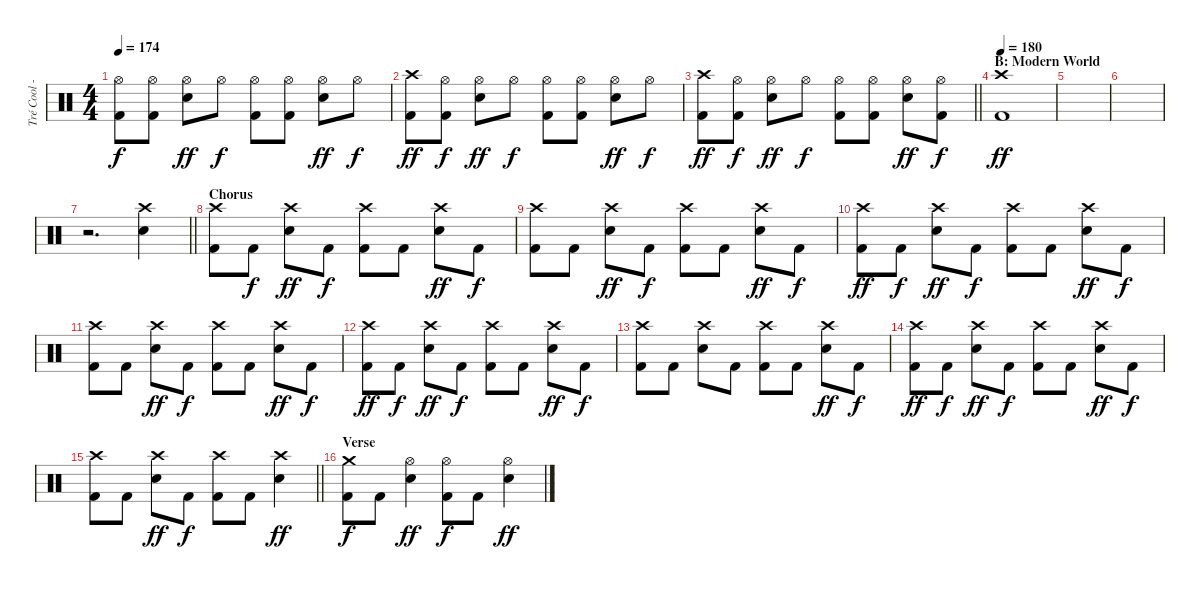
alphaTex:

\track ("Tré Cool - Drums" "Tré Cool -") {instrument percussion}
\staff {score}
\articulation defaults
\ts (4 4)
\tempo 174
\clef neutral
\ks c
("Hi-Hat (open)" "Kick (hit) 2").8{dy f} ("Hi-Hat (open)" "Kick (hit) 2").8 ("Hi-Hat (open)" "Electric Snare (hit)").8{dy ff} "Hi-Hat (open)".8{dy f} ("Hi-Hat (open)" "Kick (hit) 2").8 ("Hi-Hat (open)" "Kick (hit) 2").8 ("Hi-Hat (open)" "Electric Snare (hit)").8{dy ff} "Hi-Hat (open)".8{dy f} |
("Crash high (hit)" "Kick (hit) 2").8{dy ff} ("Hi-Hat (open)" "Kick (hit) 2").8{dy f} ("Hi-Hat (open)" "Electric Snare (hit)").8{dy ff} "Hi-Hat (open)".8{dy f} ("Hi-Hat (open)" "Kick (hit) 2").8 ("Hi-Hat (open)" "Kick (hit) 2").8 ("Hi-Hat (open)" "Electric Snare (hit)").8{dy ff} "Hi-Hat (open)".8{dy f} |
\barLineRight lightlight
("Crash high (hit)" "Kick (hit) 2").8{dy ff} ("Hi-Hat (open)" "Kick (hit) 2").8{dy f} ("Hi-Hat (open)" "Electric Snare (hit)").8{dy ff} "Hi-Hat (open)".8{dy f} ("Hi-Hat (open)" "Kick (hit) 2").8 ("Hi-Hat (open)" "Kick (hit) 2").8 ("Hi-Hat (open)" "Electric Snare (hit)").8{dy ff} ("Hi-Hat (open)" "Kick (hit) 2").8{dy f} |
\section ("" "B: Modern World")
\tempo 180
("Crash high (hit)" "Kick (hit) 2").1{dy ff} |
|
|
\barLineRight lightlight
r.2{d} ("Crash high (hit)" "Electric Snare (hit)").4 |
\section ("" "Chorus")
("Crash high (hit)" "Kick (hit) 2").8 "Kick (hit) 2".8{dy f} ("Crash high (hit)" "Electric Snare (hit)").8{dy ff} "Kick (hit) 2".8{dy f} ("Crash high (hit)" "Kick (hit) 2").8 "Kick (hit) 2".8 ("Crash high (hit)" "Electric Snare (hit)").8{dy ff} "Kick (hit) 2".8{dy f} |
("Crash high (hit)" "Kick (hit) 2").8 "Kick (hit) 2".8 ("Crash high (hit)" "Electric Snare (hit)").8{dy ff} "Kick (hit) 2".8{dy f} ("Crash high (hit)" "Kick (hit) 2").8 "Kick (hit) 2".8 ("Crash high (hit)" "Electric Snare (hit)").8{dy ff} "Kick (hit) 2".8{dy f} |
("Crash high (hit)" "Kick (hit) 2").8{dy ff} "Kick (hit) 2".8{dy f} ("Crash high (hit)" "Electric Snare (hit)").8{dy ff} "Kick (hit) 2".8{dy f} ("Crash high (hit)" "Kick (hit) 2").8 "Kick (hit) 2".8 ("Crash high (hit)" "Electric Snare (hit)").8{dy ff} "Kick (hit) 2".8{dy f} |
("Crash high (hit)" "Kick (hit) 2").8 "Kick (hit) 2".8 ("Crash high (hit)" "Electric Snare (hit)").8{dy ff} "Kick (hit) 2".8{dy f} ("Crash high (hit)" "Kick (hit) 2").8 "Kick (hit) 2".8 ("Crash high (hit)" "Electric Snare (hit)").8{dy ff} "Kick (hit) 2".8{dy f} |
("Crash high (hit)" "Kick (hit) 2").8{dy ff} "Kick (hit) 2".8{dy f} ("Crash high (hit)" "Electric Snare (hit)").8{dy ff} "Kick (hit) 2".8{dy f} ("Crash high (hit)" "Kick (hit) 2").8 "Kick (hit) 2".8 ("Crash high (hit)" "Electric Snare (hit)").8{dy ff} "Kick (hit) 2".8{dy f} |
("Crash high (hit)" "Kick (hit) 2").8 "Kick (hit) 2".8 ("Crash high (hit)" "Electric Snare (hit)").8 "Kick (hit) 2".8 ("Crash high (hit)" "Kick (hit) 2").8 "Kick (hit) 2".8 ("Crash high (hit)" "Electric Snare (hit)").8{dy ff} "Kick (hit) 2".8{dy f} |
("Crash high (hit)" "Kick (hit) 2").8{dy ff} "Kick (hit) 2".8{dy f} ("Crash high (hit)" "Electric Snare (hit)").8{dy ff} "Kick (hit) 2".8{dy f} ("Crash high (hit)" "Kick (hit) 2").8 "Kick (hit) 2".8 ("Crash high (hit)" "Electric Snare (hit)").8{dy ff} "Kick (hit) 2".8{dy f} |
\barLineRight lightlight
("Crash high (hit)" "Kick (hit) 2").8 "Kick (hit) 2".8 ("Crash high (hit)" "Electric Snare (hit)").8{dy ff} "Kick (hit) 2".8{dy f} ("Crash high (hit)" "Kick (hit) 2").8 "Kick (hit) 2".8 ("Crash high (hit)" "Electric Snare (hit)").4{dy ff} |
\section ("" "Verse")
("Crash medium (hit)" "Kick (hit) 2").8{dy f} "Kick (hit) 2".8 ("Hi-Hat (open)" "Electric Snare (hit)").4{dy ff} ("Hi-Hat (open)" "Kick (hit) 2").8{dy f} "Kick (hit) 2".8 ("Hi-Hat (open)" "Electric Snare (hit)").4{dy ff}
